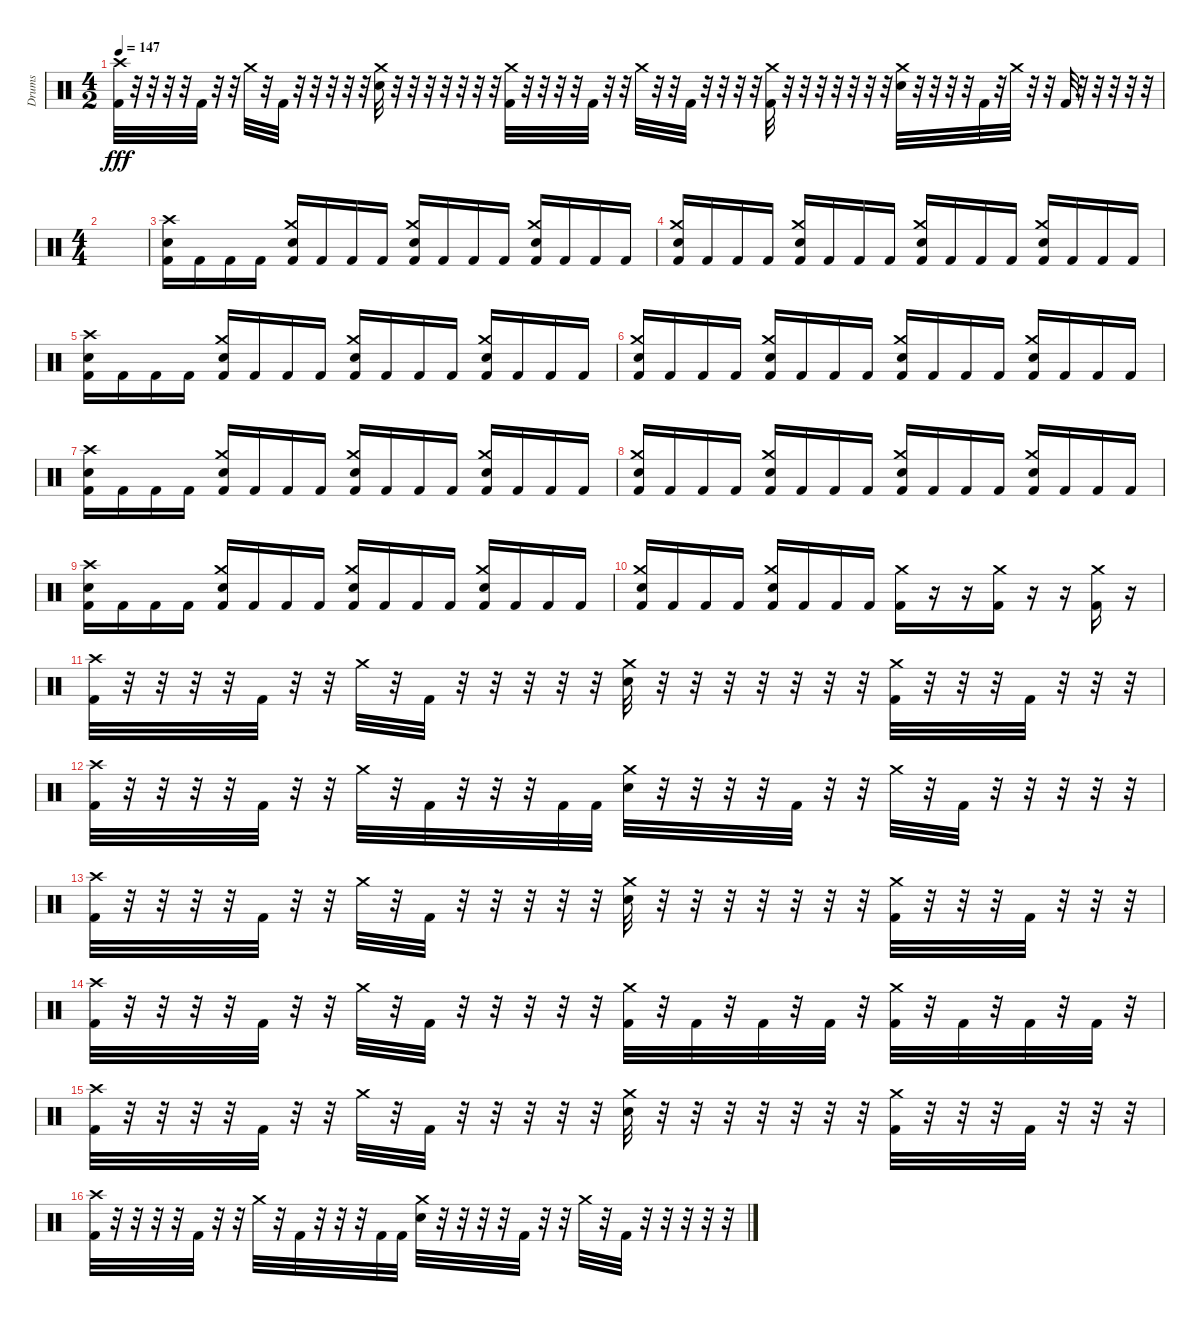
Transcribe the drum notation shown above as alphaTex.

\track ("Drums" "Drums") {instrument percussion}
\staff {score}
\articulation defaults
\ts (4 2)
\tempo 147
\clef neutral
\ks c
("Crash high (hit)" "Kick (hit) 2").32{dy fff} r.32 r.32 r.32 r.32 "Kick (hit) 2".32 r.32 r.32 "Crash medium (hit)".32 r.32 "Kick (hit) 2".32 r.32 r.32 r.32 r.32 r.32 ("Crash medium (hit)" "Electric Snare (hit)").32 r.32 r.32 r.32 r.32 r.32 r.32 r.32 ("Crash medium (hit)" "Kick (hit) 2").32 r.32 r.32 r.32 r.32 "Kick (hit) 2".32 r.32 r.32 "Crash medium (hit)".32 r.32 r.32 "Kick (hit) 2".32 r.32 r.32 r.32 r.32 ("Crash medium (hit)" "Kick (hit) 2").32 r.32 r.32 r.32 r.32 r.32 r.32 r.32 ("Crash medium (hit)" "Electric Snare (hit)").32 r.32 r.32 r.32 r.32 "Kick (hit) 2".32 r.32 "Crash medium (hit)".32 r.32 r.32 "Kick (hit) 2".32 r.32 r.32 r.32 r.32 r.32 |
\ts (4 4)
|
("Crash high (hit)" "Electric Snare (hit)" "Kick (hit) 2").16 "Kick (hit) 2".16 "Kick (hit) 2".16 "Kick (hit) 2".16 ("Crash medium (hit)" "Electric Snare (hit)" "Kick (hit) 2").16 "Kick (hit) 2".16 "Kick (hit) 2".16 "Kick (hit) 2".16 ("Crash medium (hit)" "Electric Snare (hit)" "Kick (hit) 2").16 "Kick (hit) 2".16 "Kick (hit) 2".16 "Kick (hit) 2".16 ("Crash medium (hit)" "Electric Snare (hit)" "Kick (hit) 2").16 "Kick (hit) 2".16 "Kick (hit) 2".16 "Kick (hit) 2".16 |
("Crash medium (hit)" "Electric Snare (hit)" "Kick (hit) 2").16 "Kick (hit) 2".16 "Kick (hit) 2".16 "Kick (hit) 2".16 ("Crash medium (hit)" "Electric Snare (hit)" "Kick (hit) 2").16 "Kick (hit) 2".16 "Kick (hit) 2".16 "Kick (hit) 2".16 ("Crash medium (hit)" "Electric Snare (hit)" "Kick (hit) 2").16 "Kick (hit) 2".16 "Kick (hit) 2".16 "Kick (hit) 2".16 ("Crash medium (hit)" "Electric Snare (hit)" "Kick (hit) 2").16 "Kick (hit) 2".16 "Kick (hit) 2".16 "Kick (hit) 2".16 |
("Crash high (hit)" "Electric Snare (hit)" "Kick (hit) 2").16 "Kick (hit) 2".16 "Kick (hit) 2".16 "Kick (hit) 2".16 ("Crash medium (hit)" "Electric Snare (hit)" "Kick (hit) 2").16 "Kick (hit) 2".16 "Kick (hit) 2".16 "Kick (hit) 2".16 ("Crash medium (hit)" "Electric Snare (hit)" "Kick (hit) 2").16 "Kick (hit) 2".16 "Kick (hit) 2".16 "Kick (hit) 2".16 ("Crash medium (hit)" "Electric Snare (hit)" "Kick (hit) 2").16 "Kick (hit) 2".16 "Kick (hit) 2".16 "Kick (hit) 2".16 |
("Crash medium (hit)" "Electric Snare (hit)" "Kick (hit) 2").16 "Kick (hit) 2".16 "Kick (hit) 2".16 "Kick (hit) 2".16 ("Crash medium (hit)" "Electric Snare (hit)" "Kick (hit) 2").16 "Kick (hit) 2".16 "Kick (hit) 2".16 "Kick (hit) 2".16 ("Crash medium (hit)" "Electric Snare (hit)" "Kick (hit) 2").16 "Kick (hit) 2".16 "Kick (hit) 2".16 "Kick (hit) 2".16 ("Crash medium (hit)" "Electric Snare (hit)" "Kick (hit) 2").16 "Kick (hit) 2".16 "Kick (hit) 2".16 "Kick (hit) 2".16 |
("Crash high (hit)" "Electric Snare (hit)" "Kick (hit) 2").16 "Kick (hit) 2".16 "Kick (hit) 2".16 "Kick (hit) 2".16 ("Crash medium (hit)" "Electric Snare (hit)" "Kick (hit) 2").16 "Kick (hit) 2".16 "Kick (hit) 2".16 "Kick (hit) 2".16 ("Crash medium (hit)" "Electric Snare (hit)" "Kick (hit) 2").16 "Kick (hit) 2".16 "Kick (hit) 2".16 "Kick (hit) 2".16 ("Crash medium (hit)" "Electric Snare (hit)" "Kick (hit) 2").16 "Kick (hit) 2".16 "Kick (hit) 2".16 "Kick (hit) 2".16 |
("Crash medium (hit)" "Electric Snare (hit)" "Kick (hit) 2").16 "Kick (hit) 2".16 "Kick (hit) 2".16 "Kick (hit) 2".16 ("Crash medium (hit)" "Electric Snare (hit)" "Kick (hit) 2").16 "Kick (hit) 2".16 "Kick (hit) 2".16 "Kick (hit) 2".16 ("Crash medium (hit)" "Electric Snare (hit)" "Kick (hit) 2").16 "Kick (hit) 2".16 "Kick (hit) 2".16 "Kick (hit) 2".16 ("Crash medium (hit)" "Electric Snare (hit)" "Kick (hit) 2").16 "Kick (hit) 2".16 "Kick (hit) 2".16 "Kick (hit) 2".16 |
("Crash high (hit)" "Electric Snare (hit)" "Kick (hit) 2").16 "Kick (hit) 2".16 "Kick (hit) 2".16 "Kick (hit) 2".16 ("Crash medium (hit)" "Electric Snare (hit)" "Kick (hit) 2").16 "Kick (hit) 2".16 "Kick (hit) 2".16 "Kick (hit) 2".16 ("Crash medium (hit)" "Electric Snare (hit)" "Kick (hit) 2").16 "Kick (hit) 2".16 "Kick (hit) 2".16 "Kick (hit) 2".16 ("Crash medium (hit)" "Electric Snare (hit)" "Kick (hit) 2").16 "Kick (hit) 2".16 "Kick (hit) 2".16 "Kick (hit) 2".16 |
("Crash medium (hit)" "Electric Snare (hit)" "Kick (hit) 2").16 "Kick (hit) 2".16 "Kick (hit) 2".16 "Kick (hit) 2".16 ("Crash medium (hit)" "Electric Snare (hit)" "Kick (hit) 2").16 "Kick (hit) 2".16 "Kick (hit) 2".16 "Kick (hit) 2".16 ("Crash medium (hit)" "Kick (hit) 2").16 r.16 r.16 ("Crash medium (hit)" "Kick (hit) 2").16 r.16 r.16 ("Crash medium (hit)" "Kick (hit) 2").16 r.16 |
("Crash high (hit)" "Kick (hit) 2").32 r.32 r.32 r.32 r.32 "Kick (hit) 2".32 r.32 r.32 "Crash medium (hit)".32 r.32 "Kick (hit) 2".32 r.32 r.32 r.32 r.32 r.32 ("Crash medium (hit)" "Electric Snare (hit)").32 r.32 r.32 r.32 r.32 r.32 r.32 r.32 ("Crash medium (hit)" "Kick (hit) 2").32 r.32 r.32 r.32 "Kick (hit) 2".32 r.32 r.32 r.32 |
("Crash high (hit)" "Kick (hit) 2").32 r.32 r.32 r.32 r.32 "Kick (hit) 2".32 r.32 r.32 "Crash medium (hit)".32 r.32 "Kick (hit) 2".32 r.32 r.32 r.32 "Kick (hit) 2".32 "Kick (hit) 2".32 ("Crash medium (hit)" "Electric Snare (hit)").32 r.32 r.32 r.32 r.32 "Kick (hit) 2".32 r.32 r.32 "Crash medium (hit)".32 r.32 "Kick (hit) 2".32 r.32 r.32 r.32 r.32 r.32 |
("Crash high (hit)" "Kick (hit) 2").32 r.32 r.32 r.32 r.32 "Kick (hit) 2".32 r.32 r.32 "Crash medium (hit)".32 r.32 "Kick (hit) 2".32 r.32 r.32 r.32 r.32 r.32 ("Crash medium (hit)" "Electric Snare (hit)").32 r.32 r.32 r.32 r.32 r.32 r.32 r.32 ("Crash medium (hit)" "Kick (hit) 2").32 r.32 r.32 r.32 "Kick (hit) 2".32 r.32 r.32 r.32 |
("Crash high (hit)" "Kick (hit) 2").32 r.32 r.32 r.32 r.32 "Kick (hit) 2".32 r.32 r.32 "Crash medium (hit)".32 r.32 "Kick (hit) 2".32 r.32 r.32 r.32 r.32 r.32 ("Crash medium (hit)" "Kick (hit) 2").32 r.32 "Kick (hit) 2".32 r.32 "Kick (hit) 2".32 r.32 "Kick (hit) 2".32 r.32 ("Crash medium (hit)" "Kick (hit) 2").32 r.32 "Kick (hit) 2".32 r.32 "Kick (hit) 2".32 r.32 "Kick (hit) 2".32 r.32 |
("Crash high (hit)" "Kick (hit) 2").32 r.32 r.32 r.32 r.32 "Kick (hit) 2".32 r.32 r.32 "Crash medium (hit)".32 r.32 "Kick (hit) 2".32 r.32 r.32 r.32 r.32 r.32 ("Crash medium (hit)" "Electric Snare (hit)").32 r.32 r.32 r.32 r.32 r.32 r.32 r.32 ("Crash medium (hit)" "Kick (hit) 2").32 r.32 r.32 r.32 "Kick (hit) 2".32 r.32 r.32 r.32 |
("Crash high (hit)" "Kick (hit) 2").32 r.32 r.32 r.32 r.32 "Kick (hit) 2".32 r.32 r.32 "Crash medium (hit)".32 r.32 "Kick (hit) 2".32 r.32 r.32 r.32 "Kick (hit) 2".32 "Kick (hit) 2".32 ("Crash medium (hit)" "Electric Snare (hit)").32 r.32 r.32 r.32 r.32 "Kick (hit) 2".32 r.32 r.32 "Crash medium (hit)".32 r.32 "Kick (hit) 2".32 r.32 r.32 r.32 r.32 r.32
